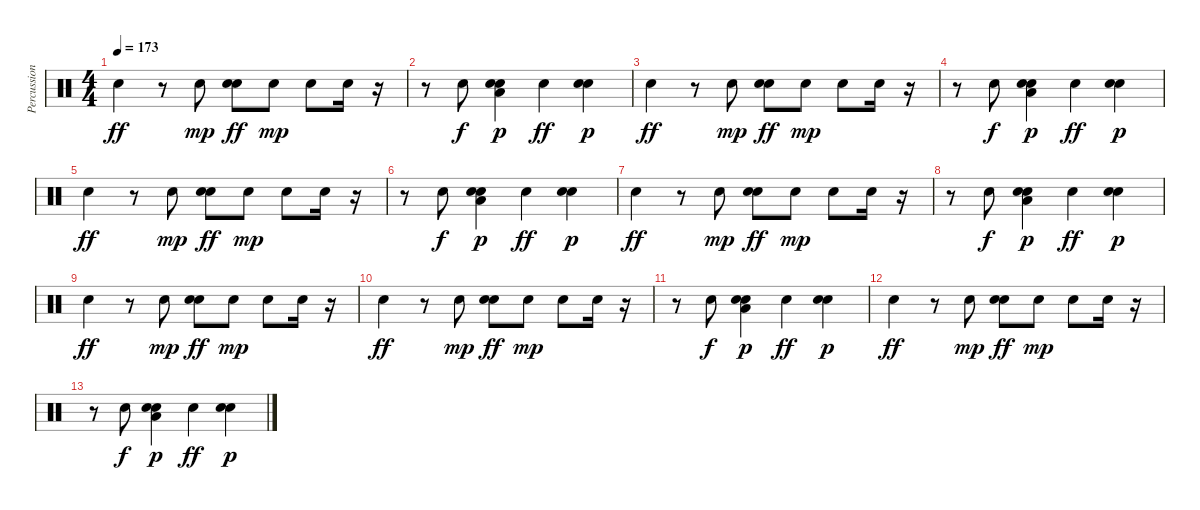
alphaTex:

\track ("Percussion" "Percussion") {instrument percussion}
\staff {score}
\articulation defaults
\ts (4 4)
\tempo 173
\clef neutral
\ks c "Hand Clap (hit)".4{dy ff}
r.8 "Hand Clap (hit)".8{dy mp} ("Snare (hit) 2" "Hand Clap (hit)").8{dy ff} "Hand Clap (hit)".8{dy mp} "Hand Clap (hit)".8 "Hand Clap (hit)".16 r.16 |
r.8 "Hand Clap (hit)".8{dy f} ("Hand Clap (hit)" "Snare (hit) 2" "Low Floor Tom (hit)").4{dy p} "Hand Clap (hit)".4{dy ff} ("Snare (hit) 2" "Hand Clap (hit)").4{dy p} |
"Hand Clap (hit)".4{dy ff} r.8 "Hand Clap (hit)".8{dy mp} ("Snare (hit) 2" "Hand Clap (hit)").8{dy ff} "Hand Clap (hit)".8{dy mp} "Hand Clap (hit)".8 "Hand Clap (hit)".16 r.16 |
r.8 "Hand Clap (hit)".8{dy f volume 4} ("Hand Clap (hit)" "Snare (hit) 2" "Low Floor Tom (hit)").4{dy p} "Hand Clap (hit)".4{dy ff} ("Snare (hit) 2" "Hand Clap (hit)").4{dy p} |
"Hand Clap (hit)".4{dy ff} r.8 "Hand Clap (hit)".8{dy mp} ("Snare (hit) 2" "Hand Clap (hit)").8{dy ff} "Hand Clap (hit)".8{dy mp} "Hand Clap (hit)".8 "Hand Clap (hit)".16 r.16 |
r.8 "Hand Clap (hit)".8{dy f} ("Hand Clap (hit)" "Snare (hit) 2" "Low Floor Tom (hit)").4{dy p} "Hand Clap (hit)".4{dy ff} ("Snare (hit) 2" "Hand Clap (hit)").4{dy p} |
"Hand Clap (hit)".4{dy ff} r.8 "Hand Clap (hit)".8{dy mp} ("Snare (hit) 2" "Hand Clap (hit)").8{dy ff} "Hand Clap (hit)".8{dy mp} "Hand Clap (hit)".8 "Hand Clap (hit)".16 r.16 |
r.8 "Hand Clap (hit)".8{dy f volume 2} ("Hand Clap (hit)" "Snare (hit) 2" "Low Floor Tom (hit)").4{dy p} "Hand Clap (hit)".4{dy ff} ("Snare (hit) 2" "Hand Clap (hit)").4{dy p} |
"Hand Clap (hit)".4{dy ff} r.8 "Hand Clap (hit)".8{dy mp} ("Snare (hit) 2" "Hand Clap (hit)").8{dy ff} "Hand Clap (hit)".8{dy mp} "Hand Clap (hit)".8 "Hand Clap (hit)".16 r.16 |
"Hand Clap (hit)".4{dy ff} r.8 "Hand Clap (hit)".8{dy mp} ("Snare (hit) 2" "Hand Clap (hit)").8{dy ff} "Hand Clap (hit)".8{dy mp} "Hand Clap (hit)".8 "Hand Clap (hit)".16 r.16 |
r.8 "Hand Clap (hit)".8{dy f} ("Hand Clap (hit)" "Snare (hit) 2" "Low Floor Tom (hit)").4{dy p} "Hand Clap (hit)".4{dy ff} ("Snare (hit) 2" "Hand Clap (hit)").4{dy p} |
"Hand Clap (hit)".4{dy ff} r.8{volume 0} "Hand Clap (hit)".8{dy mp} ("Snare (hit) 2" "Hand Clap (hit)").8{dy ff} "Hand Clap (hit)".8{dy mp} "Hand Clap (hit)".8 "Hand Clap (hit)".16 r.16 |
r.8 "Hand Clap (hit)".8{dy f} ("Hand Clap (hit)" "Snare (hit) 2" "Low Floor Tom (hit)").4{dy p} "Hand Clap (hit)".4{dy ff} ("Snare (hit) 2" "Hand Clap (hit)").4{dy p}
